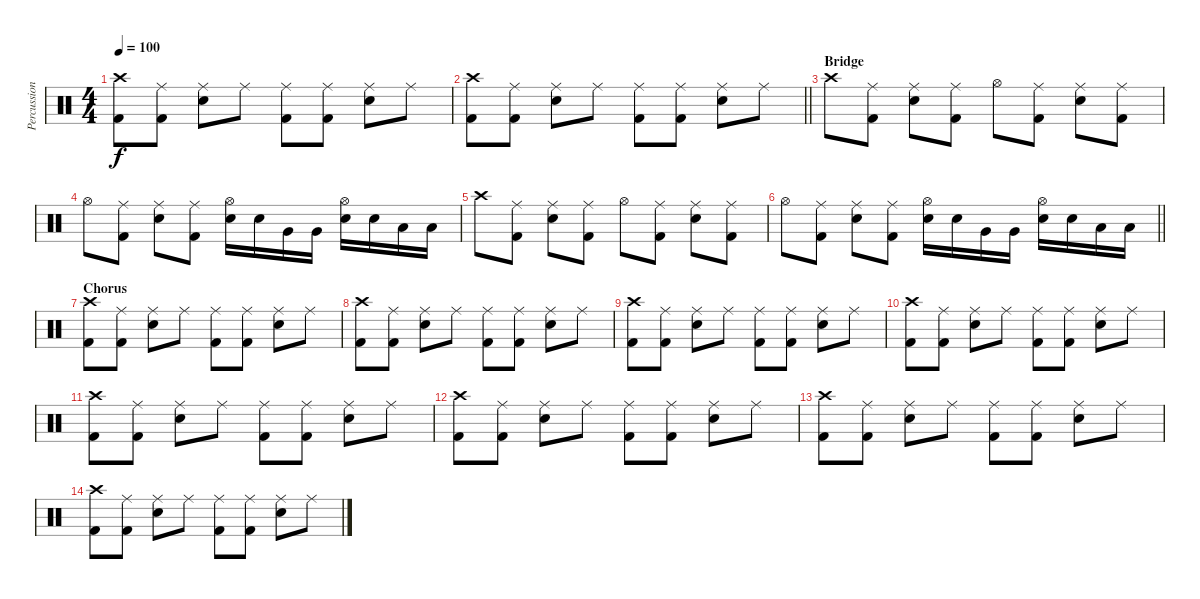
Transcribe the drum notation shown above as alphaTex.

\track ("Percussion" "Percussion") {instrument percussion}
\staff {score}
\articulation defaults
\ts (4 4)
\tempo 100
\clef neutral
\ks c
("Crash high (hit)" "Kick (hit) 2").8{dy f} ("Ride (middle)" "Kick (hit) 2").8 ("Ride (middle)" "Snare (hit) 2").8 "Ride (middle)".8 ("Ride (middle)" "Kick (hit) 2").8 ("Ride (middle)" "Kick (hit) 2").8 ("Ride (middle)" "Snare (hit) 2").8 "Ride (middle)".8 |
\barLineRight lightlight
("Crash high (hit)" "Kick (hit) 2").8 ("Ride (middle)" "Kick (hit) 2").8 ("Ride (middle)" "Snare (hit) 2").8 "Ride (middle)".8 ("Ride (middle)" "Kick (hit) 2").8 ("Ride (middle)" "Kick (hit) 2").8 ("Ride (middle)" "Snare (hit) 2").8 "Ride (middle)".8 |
\section ("" "Bridge")
"Crash high (hit)".8 ("Kick (hit) 2" "Ride (middle)").8 ("Snare (hit) 2" "Ride (middle)").8 ("Kick (hit) 2" "Ride (middle)").8 "Hi-Hat (open)".8 ("Kick (hit) 2" "Ride (middle)").8 ("Snare (hit) 2" "Ride (middle)").8 ("Kick (hit) 2" "Ride (middle)").8 |
"Hi-Hat (open)".8 ("Kick (hit) 2" "Ride (middle)").8 ("Snare (hit) 2" "Ride (middle)").8 ("Kick (hit) 2" "Ride (middle)").8 ("Snare (hit) 2" "Hi-Hat (open)").16 "Snare (hit) 2".16 "Very Low Tom (hit)".16 "Very Low Tom (hit)".16 ("Snare (hit) 2" "Hi-Hat (open)").16 "Snare (hit) 2".16 "Low Floor Tom (hit)".16 "Low Floor Tom (hit)".16 |
"Crash high (hit)".8 ("Kick (hit) 2" "Ride (middle)").8 ("Snare (hit) 2" "Ride (middle)").8 ("Kick (hit) 2" "Ride (middle)").8 "Hi-Hat (open)".8 ("Kick (hit) 2" "Ride (middle)").8 ("Snare (hit) 2" "Ride (middle)").8 ("Kick (hit) 2" "Ride (middle)").8 |
\barLineRight lightlight "Hi-Hat (open)".8
("Kick (hit) 2" "Ride (middle)").8 ("Snare (hit) 2" "Ride (middle)").8 ("Kick (hit) 2" "Ride (middle)").8 ("Snare (hit) 2" "Hi-Hat (open)").16 "Snare (hit) 2".16 "Very Low Tom (hit)".16 "Very Low Tom (hit)".16 ("Snare (hit) 2" "Hi-Hat (open)").16 "Snare (hit) 2".16 "Low Floor Tom (hit)".16 "Low Floor Tom (hit)".16 |
\section ("" "Chorus")
("Crash high (hit)" "Kick (hit) 2").8 ("Ride (middle)" "Kick (hit) 2").8 ("Ride (middle)" "Snare (hit) 2").8 "Ride (middle)".8 ("Ride (middle)" "Kick (hit) 2").8 ("Ride (middle)" "Kick (hit) 2").8 ("Ride (middle)" "Snare (hit) 2").8 "Ride (middle)".8 |
("Crash high (hit)" "Kick (hit) 2").8 ("Ride (middle)" "Kick (hit) 2").8 ("Ride (middle)" "Snare (hit) 2").8 "Ride (middle)".8 ("Ride (middle)" "Kick (hit) 2").8 ("Ride (middle)" "Kick (hit) 2").8 ("Ride (middle)" "Snare (hit) 2").8 "Ride (middle)".8 |
("Crash high (hit)" "Kick (hit) 2").8 ("Ride (middle)" "Kick (hit) 2").8 ("Ride (middle)" "Snare (hit) 2").8 "Ride (middle)".8 ("Ride (middle)" "Kick (hit) 2").8 ("Ride (middle)" "Kick (hit) 2").8 ("Ride (middle)" "Snare (hit) 2").8 "Ride (middle)".8 |
("Crash high (hit)" "Kick (hit) 2").8 ("Ride (middle)" "Kick (hit) 2").8 ("Ride (middle)" "Snare (hit) 2").8 "Ride (middle)".8 ("Ride (middle)" "Kick (hit) 2").8 ("Ride (middle)" "Kick (hit) 2").8 ("Ride (middle)" "Snare (hit) 2").8 "Ride (middle)".8 |
("Crash high (hit)" "Kick (hit) 2").8 ("Ride (middle)" "Kick (hit) 2").8 ("Ride (middle)" "Snare (hit) 2").8 "Ride (middle)".8 ("Ride (middle)" "Kick (hit) 2").8 ("Ride (middle)" "Kick (hit) 2").8 ("Ride (middle)" "Snare (hit) 2").8 "Ride (middle)".8 |
("Crash high (hit)" "Kick (hit) 2").8 ("Ride (middle)" "Kick (hit) 2").8 ("Ride (middle)" "Snare (hit) 2").8 "Ride (middle)".8 ("Ride (middle)" "Kick (hit) 2").8 ("Ride (middle)" "Kick (hit) 2").8 ("Ride (middle)" "Snare (hit) 2").8 "Ride (middle)".8 |
("Crash high (hit)" "Kick (hit) 2").8 ("Ride (middle)" "Kick (hit) 2").8 ("Ride (middle)" "Snare (hit) 2").8 "Ride (middle)".8 ("Ride (middle)" "Kick (hit) 2").8 ("Ride (middle)" "Kick (hit) 2").8 ("Ride (middle)" "Snare (hit) 2").8 "Ride (middle)".8 |
("Crash high (hit)" "Kick (hit) 2").8 ("Ride (middle)" "Kick (hit) 2").8 ("Ride (middle)" "Snare (hit) 2").8 "Ride (middle)".8 ("Ride (middle)" "Kick (hit) 2").8 ("Ride (middle)" "Kick (hit) 2").8 ("Ride (middle)" "Snare (hit) 2").8 "Ride (middle)".8
